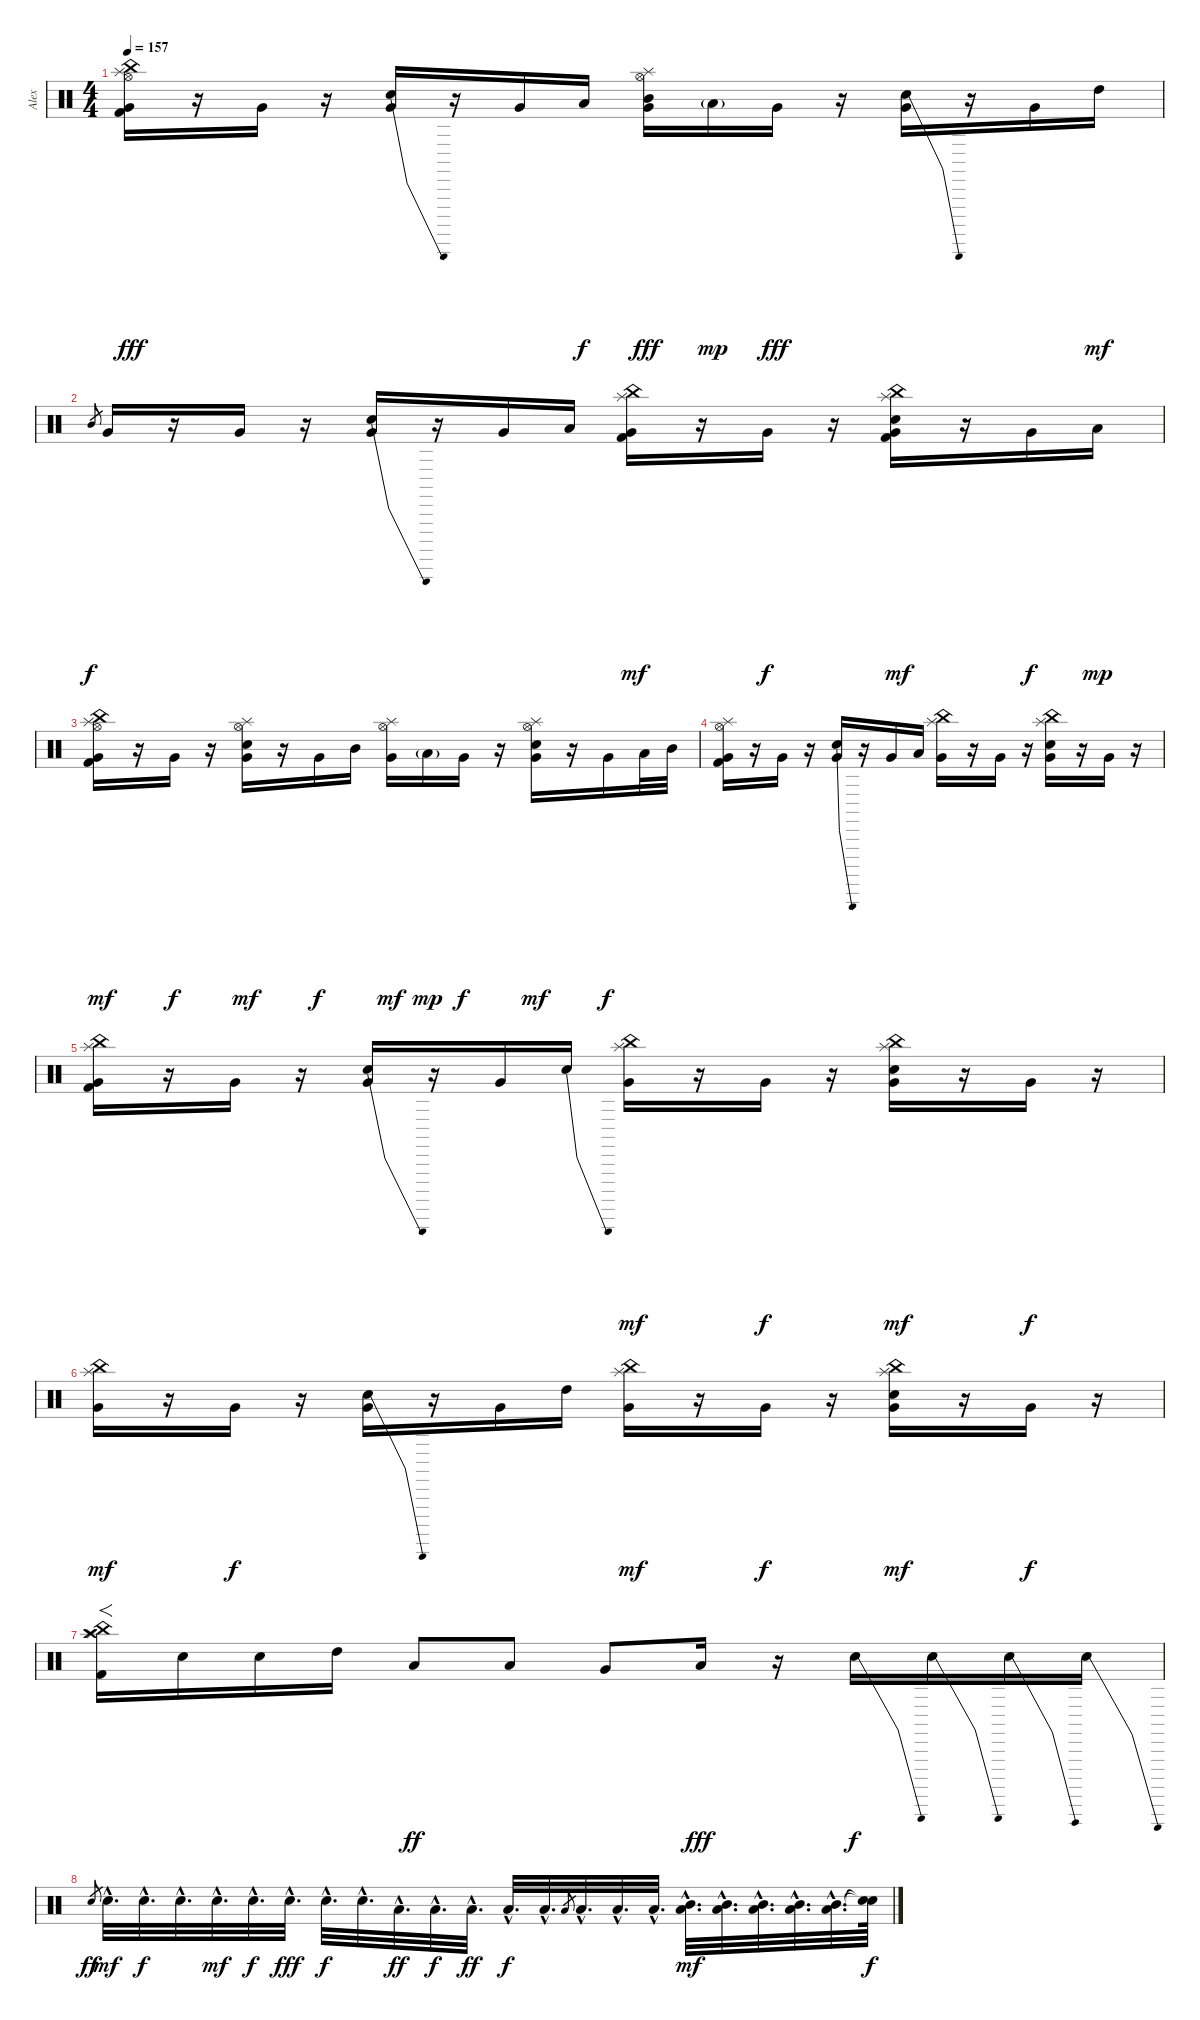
\track ("Alex" "Alex") {instrument percussion}
\staff {score}
\articulation defaults
\ts (4 4)
\tempo 157
\clef neutral
\ks c
("China (hit)" "Splash (hit)" "Hi-Hat (open)" "Very Low Tom (hit)" "Kick (hit) 2").16{dy fff} r.16 "Very Low Tom (hit)".16 r.16 ("Electric Snare (hit)"{be (bend 0 0 60 12)} "Very Low Tom (hit)").16 r.16 "Very Low Tom (hit)".16 "Low Tom (hit)".16{dy f} ("Splash (hit)" "Hi-Hat (open)" "Mid Tom (hit)" "Very Low Tom (hit)").16{dy fff} "Low Tom (hit)"{g}.16{dy mp} "Very Low Tom (hit)".16{dy fff} r.16 ("Electric Snare (hit)"{be (bend 0 0 60 12)} "Very Low Tom (hit)").16 r.16 "Very Low Tom (hit)".16 "High Tom (hit)".16{dy mf} |
"Mid Tom (hit)".8{gr dy f} "Very Low Tom (hit)".16 r.16 "Very Low Tom (hit)".16 r.16 ("Electric Snare (hit)"{be (bend 0 0 60 12)} "Very Low Tom (hit)").16 r.16 "Very Low Tom (hit)".16 "Low Tom (hit)".16 ("Splash (hit)" "China (hit)" "Very Low Tom (hit)" "Kick (hit) 2").16{dy mf} r.16 "Very Low Tom (hit)".16{dy f} r.16 ("Splash (hit)" "China (hit)" "Electric Snare (hit)" "Very Low Tom (hit)" "Kick (hit) 2").16{dy mf} r.16 "Very Low Tom (hit)".16{dy f} "Low Tom (hit)".16{dy mp} |
("Hi-Hat (open)" "Splash (hit)" "China (hit)" "Very Low Tom (hit)" "Kick (hit) 2").16{dy mf} r.16 "Very Low Tom (hit)".16{dy f} r.16 ("Hi-Hat (open)" "Splash (hit)" "Electric Snare (hit)" "Very Low Tom (hit)").16{dy mf} r.16 "Very Low Tom (hit)".16{dy f} "Mid Tom (hit)".16 ("Hi-Hat (open)" "Splash (hit)" "Very Low Tom (hit)").16{dy mf} "Low Tom (hit)"{g}.16{dy mp} "Very Low Tom (hit)".16{dy f} r.16 ("Hi-Hat (open)" "Splash (hit)" "Electric Snare (hit)" "Very Low Tom (hit)").16{dy mf} r.16 "Very Low Tom (hit)".16{dy f} "Low Tom (hit)".32 "Mid Tom (hit)".32 |
("Hi-Hat (open)" "Splash (hit)" "Very Low Tom (hit)" "Kick (hit) 2").16 r.16 "Very Low Tom (hit)".16 r.16 ("Electric Snare (hit)"{be (bend 0 0 60 12)} "Very Low Tom (hit)").16 r.16 "Very Low Tom (hit)".16 "Low Tom (hit)".16 ("Splash (hit)" "China (hit)" "Very Low Tom (hit)").16 r.16 "Very Low Tom (hit)".16 r.16 ("Splash (hit)" "China (hit)" "Electric Snare (hit)" "Very Low Tom (hit)").16 r.16 "Very Low Tom (hit)".16 r.16 |
("Splash (hit)" "China (hit)" "Very Low Tom (hit)" "Kick (hit) 2").16 r.16 "Very Low Tom (hit)".16 r.16 ("Electric Snare (hit)"{be (bend 0 0 60 12)} "Very Low Tom (hit)").16 r.16 "Very Low Tom (hit)".16 "Electric Snare (hit)"{be (bend 0 0 60 12)}.16 ("Splash (hit)" "China (hit)" "Very Low Tom (hit)").16{dy mf} r.16 "Very Low Tom (hit)".16{dy f} r.16 ("Splash (hit)" "China (hit)" "Electric Snare (hit)" "Very Low Tom (hit)").16{dy mf} r.16 "Very Low Tom (hit)".16{dy f} r.16 |
("Splash (hit)" "China (hit)" "Very Low Tom (hit)").16{dy mf} r.16 "Very Low Tom (hit)".16{dy f} r.16 ("Electric Snare (hit)"{be (bend 0 0 60 12)} "Very Low Tom (hit)").16 r.16 "Very Low Tom (hit)".16 "High Tom (hit)".16 ("Splash (hit)" "China (hit)" "Very Low Tom (hit)").16{dy mf} r.16 "Very Low Tom (hit)".16{dy f} r.16 ("Splash (hit)" "China (hit)" "Electric Snare (hit)" "Very Low Tom (hit)").16{dy mf} r.16 "Very Low Tom (hit)".16{dy f} r.16 |
("Crash high (hit)" "China (hit)" "Splash (hit)" "Kick (hit) 2").16{f} "Electric Snare (hit)".16 "Electric Snare (hit)".16 "High Tom (hit)".16 "Low Tom (hit)".8{dy ff} "Low Tom (hit)".8 "Very Low Tom (hit)".8 "Low Tom (hit)".16{dy fff} r.16 "Electric Snare (hit)"{be (bend 0 0 60 12)}.16{dy f} "Electric Snare (hit)"{be (bend 0 0 60 12)}.16 "Electric Snare (hit)"{be (bend 0 0 60 8)}.16 "Electric Snare (hit)"{be (bend 0 0 60 4)}.16 |
"Electric Snare (hit)".8{gr dy ff} "Electric Snare (hit)"{hac}.32{d dy mf} "Electric Snare (hit)"{hac}.32{d dy f} "Electric Snare (hit)"{hac}.32{d} "Electric Snare (hit)"{hac}.32{d dy mf} "Electric Snare (hit)"{hac}.32{d dy f} "Electric Snare (hit)"{hac}.32{d dy fff} "Electric Snare (hit)"{hac}.32{d dy f} "Electric Snare (hit)"{hac}.32{d} "Low Tom (hit)"{hac}.32{d dy ff} "Low Tom (hit)"{hac}.32{d dy f} "Low Tom (hit)"{hac}.32{d dy ff} "Low Tom (hit)"{hac}.32{d dy f} "Low Tom (hit)"{hac}.32{d} "Low Tom (hit)".8{gr} "Low Tom (hit)"{hac}.32{d} "Low Tom (hit)"{hac}.32{d} "Low Tom (hit)"{hac}.32{d} ("Mid Tom (hit)"{hac} "Low Tom (hit)"{hac}).32{d dy mf} ("Mid Tom (hit)"{hac} "Low Tom (hit)"{hac}).32{d} ("Mid Tom (hit)"{hac} "Low Tom (hit)"{hac}).32{d} ("Mid Tom (hit)"{hac} "Low Tom (hit)"{hac}).32{d} ("Mid Tom (hit)"{hac} "Low Tom (hit)"{hac}).32{d} ("Snare (hit)"{t} "Snare (hit)"{t}).64{dy f}
